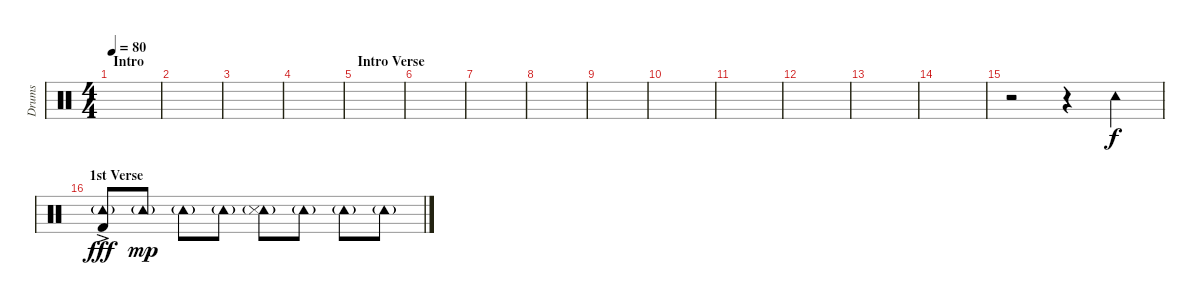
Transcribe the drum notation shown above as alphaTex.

\track ("Drums" "Drums") {instrument percussion}
\staff {score}
\articulation defaults
\ts (4 4)
\section ("" "Intro")
\tempo 80
\clef neutral
\ks c
|
|
|
|
\section ("" "Intro Verse")
|
|
|
|
|
|
|
|
|
|
r.2 r.4 "Tambourine (hit)".4 |
\section ("" "1st Verse")
("Tambourine (hit)"{g} "Kick (hit) 2"{ac}).8{dy fff} "Tambourine (hit)"{g}.8{dy mp} "Tambourine (hit)"{g}.8 "Tambourine (hit)"{g}.8 ("Tambourine (hit)"{g} "Snare (side stick) 3").8 "Tambourine (hit)"{g}.8 "Tambourine (hit)"{g}.8 "Tambourine (hit)"{g}.8
